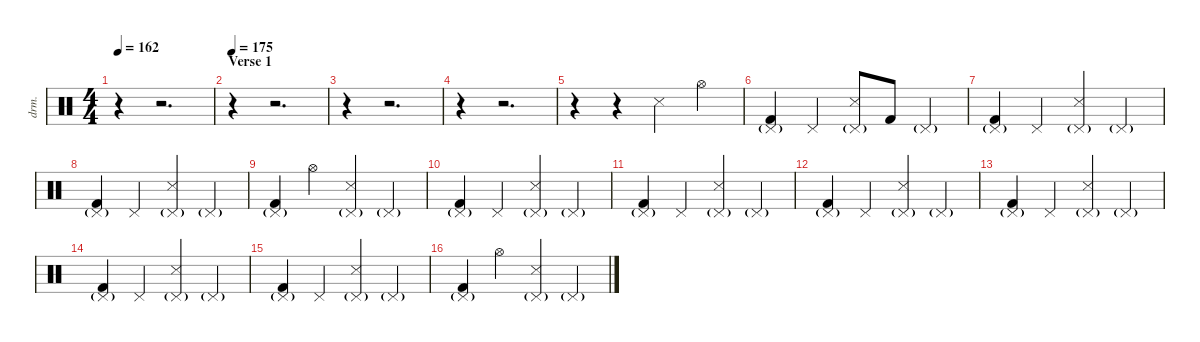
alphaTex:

\defaultSystemsLayout 4
\hideDynamics
\bracketExtendMode nobrackets
\otherSystemsTrackNameOrientation horizontal
\track ("Percussion" "drm.") {instrument percussion}
\staff {score}
\articulation defaults
\ts (4 4)
\tempo 162
\clef neutral
\ks c
r.4{dy mf} r.2{d} |
\section ("" "Verse 1")
\tempo 175
r.4 r.2{d} |
r.4 r.2{d} |
r.4 r.2{d} |
r.4 r.4 "Snare (side stick) 3".4 "Hi-Hat (open)".4{dy f} |
("Pedal Hi-Hat (hit)"{g} "Kick (hit) 2").4 "Pedal Hi-Hat (hit)".4 ("Pedal Hi-Hat (hit)"{g} "Snare (side stick) 3").8 "Kick (hit) 2".8 "Pedal Hi-Hat (hit)"{g}.4 |
("Pedal Hi-Hat (hit)"{g} "Kick (hit) 2").4 "Pedal Hi-Hat (hit)".4 ("Pedal Hi-Hat (hit)"{g} "Snare (side stick) 3").4 "Pedal Hi-Hat (hit)"{g}.4 |
("Pedal Hi-Hat (hit)"{g} "Kick (hit) 2").4 "Pedal Hi-Hat (hit)".4 ("Pedal Hi-Hat (hit)"{g} "Snare (side stick) 3").4 "Pedal Hi-Hat (hit)"{g}.4 |
("Pedal Hi-Hat (hit)"{g} "Kick (hit) 2").4 "Hi-Hat (open)".4 ("Pedal Hi-Hat (hit)"{g} "Snare (side stick) 3").4 "Pedal Hi-Hat (hit)"{g}.4 |
("Pedal Hi-Hat (hit)"{g} "Kick (hit) 2").4 "Pedal Hi-Hat (hit)".4 ("Pedal Hi-Hat (hit)"{g} "Snare (side stick) 3").4 "Pedal Hi-Hat (hit)"{g}.4 |
("Pedal Hi-Hat (hit)"{g} "Kick (hit) 2").4 "Pedal Hi-Hat (hit)".4 ("Pedal Hi-Hat (hit)"{g} "Snare (side stick) 3").4 "Pedal Hi-Hat (hit)"{g}.4 |
("Pedal Hi-Hat (hit)"{g} "Kick (hit) 2").4 "Pedal Hi-Hat (hit)".4 ("Pedal Hi-Hat (hit)"{g} "Snare (side stick) 3").4 "Pedal Hi-Hat (hit)"{g}.4 |
("Pedal Hi-Hat (hit)"{g} "Kick (hit) 2").4 "Pedal Hi-Hat (hit)".4 ("Pedal Hi-Hat (hit)"{g} "Snare (side stick) 3").4 "Pedal Hi-Hat (hit)"{g}.4 |
("Pedal Hi-Hat (hit)"{g} "Kick (hit) 2").4 "Pedal Hi-Hat (hit)".4 ("Pedal Hi-Hat (hit)"{g} "Snare (side stick) 3").4 "Pedal Hi-Hat (hit)"{g}.4 |
("Pedal Hi-Hat (hit)"{g} "Kick (hit) 2").4 "Pedal Hi-Hat (hit)".4 ("Pedal Hi-Hat (hit)"{g} "Snare (side stick) 3").4 "Pedal Hi-Hat (hit)"{g}.4 |
("Pedal Hi-Hat (hit)"{g} "Kick (hit) 2").4 "Hi-Hat (open)".4 ("Pedal Hi-Hat (hit)"{g} "Snare (side stick) 3").4 "Pedal Hi-Hat (hit)"{g}.4
